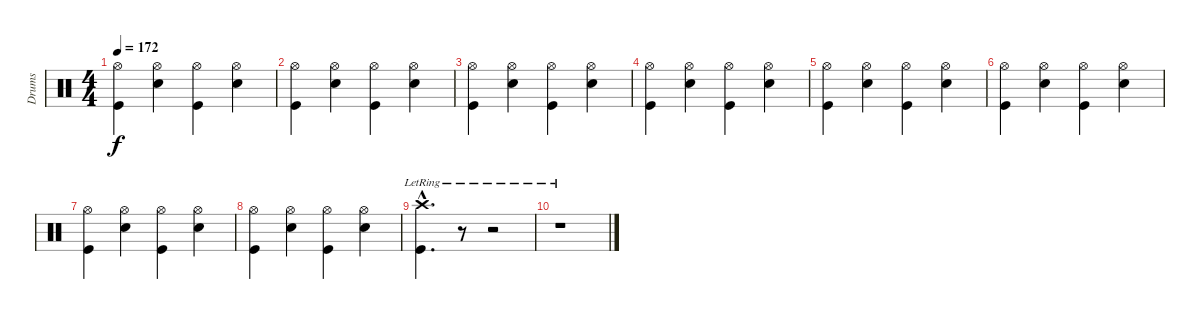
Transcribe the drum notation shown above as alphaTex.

\track ("Drums" "Drums") {instrument percussion}
\staff {score}
\articulation defaults
\ts (4 4)
\tempo 172
\clef neutral
\ks c
("Kick (hit)" "Hi-Hat (open)").4{dy f} ("Snare (hit) 2" "Hi-Hat (open)").4 ("Kick (hit)" "Hi-Hat (open)").4 ("Snare (hit) 2" "Hi-Hat (open)").4 |
("Kick (hit)" "Hi-Hat (open)").4 ("Snare (hit) 2" "Hi-Hat (open)").4 ("Kick (hit)" "Hi-Hat (open)").4 ("Snare (hit) 2" "Hi-Hat (open)").4 |
("Kick (hit)" "Hi-Hat (open)").4 ("Snare (hit) 2" "Hi-Hat (open)").4 ("Kick (hit)" "Hi-Hat (open)").4 ("Snare (hit) 2" "Hi-Hat (open)").4 |
("Kick (hit)" "Hi-Hat (open)").4 ("Snare (hit) 2" "Hi-Hat (open)").4 ("Kick (hit)" "Hi-Hat (open)").4 ("Snare (hit) 2" "Hi-Hat (open)").4 |
("Kick (hit)" "Hi-Hat (open)").4 ("Snare (hit) 2" "Hi-Hat (open)").4 ("Kick (hit)" "Hi-Hat (open)").4 ("Snare (hit) 2" "Hi-Hat (open)").4 |
("Kick (hit)" "Hi-Hat (open)").4 ("Snare (hit) 2" "Hi-Hat (open)").4 ("Kick (hit)" "Hi-Hat (open)").4 ("Snare (hit) 2" "Hi-Hat (open)").4 |
("Kick (hit)" "Hi-Hat (open)").4 ("Snare (hit) 2" "Hi-Hat (open)").4 ("Kick (hit)" "Hi-Hat (open)").4 ("Snare (hit) 2" "Hi-Hat (open)").4 |
("Kick (hit)" "Hi-Hat (open)").4 ("Snare (hit) 2" "Hi-Hat (open)").4 ("Kick (hit)" "Hi-Hat (open)").4 ("Snare (hit) 2" "Hi-Hat (open)").4 |
("Kick (hit)"{hac} "Crash high (hit)"{hac lr}).4{d} r.8 r.2 |
r.1
